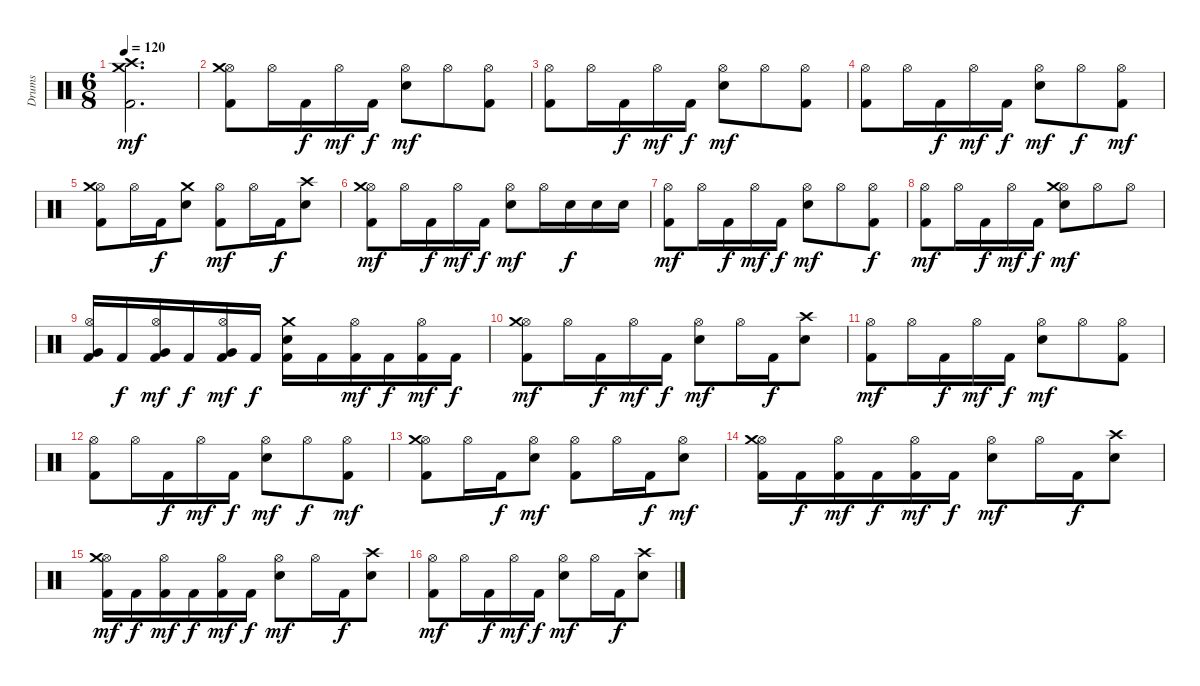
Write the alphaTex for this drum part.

\track ("Drums" "Drums") {instrument percussion}
\staff {score}
\articulation defaults
\ts (6 8)
\tempo 120
\clef neutral
\ks c
("Kick (hit) 2" "Crash high (hit)" "Crash medium (hit)").2{d dy mf} |
("Kick (hit) 2" "Hi-Hat (open)" "Crash medium (hit)").8 "Hi-Hat (open)".16 "Kick (hit) 2".16{dy f} "Hi-Hat (open)".16{dy mf} "Kick (hit) 2".16{dy f} ("Snare (hit) 2" "Hi-Hat (open)").8{dy mf} "Hi-Hat (open)".8 ("Kick (hit) 2" "Hi-Hat (open)").8 |
("Kick (hit) 2" "Hi-Hat (open)").8 "Hi-Hat (open)".16 "Kick (hit) 2".16{dy f} "Hi-Hat (open)".16{dy mf} "Kick (hit) 2".16{dy f} ("Snare (hit) 2" "Hi-Hat (open)").8{dy mf} "Hi-Hat (open)".8 ("Kick (hit) 2" "Hi-Hat (open)").8 |
("Kick (hit) 2" "Hi-Hat (open)").8 "Hi-Hat (open)".16 "Kick (hit) 2".16{dy f} "Hi-Hat (open)".16{dy mf} "Kick (hit) 2".16{dy f} ("Snare (hit) 2" "Hi-Hat (open)").8{dy mf} "Hi-Hat (open)".8{dy f} ("Kick (hit) 2" "Hi-Hat (open)").8{dy mf} |
("Kick (hit) 2" "Hi-Hat (open)" "Crash medium (hit)").8 "Hi-Hat (open)".16 "Kick (hit) 2".16{dy f} ("Snare (hit) 2" "Crash medium (hit)").8 ("Kick (hit) 2" "Hi-Hat (open)").8{dy mf} "Hi-Hat (open)".16 "Kick (hit) 2".16{dy f} ("Snare (hit) 2" "Crash high (hit)").8 |
("Kick (hit) 2" "Hi-Hat (open)" "Crash medium (hit)").8{dy mf} "Hi-Hat (open)".16 "Kick (hit) 2".16{dy f} "Hi-Hat (open)".16{dy mf} "Kick (hit) 2".16{dy f} ("Snare (hit) 2" "Hi-Hat (open)").8{dy mf} "Hi-Hat (open)".16 "Snare (hit) 2".16{dy f} "Snare (hit) 2".16 "Snare (hit) 2".16 |
("Kick (hit) 2" "Hi-Hat (open)").8{dy mf} "Hi-Hat (open)".16 "Kick (hit) 2".16{dy f} "Hi-Hat (open)".16{dy mf} "Kick (hit) 2".16{dy f} ("Snare (hit) 2" "Hi-Hat (open)").8{dy mf} "Hi-Hat (open)".8 ("Kick (hit) 2" "Hi-Hat (open)").8{dy f} |
("Kick (hit) 2" "Hi-Hat (open)").8{dy mf} "Hi-Hat (open)".16 "Kick (hit) 2".16{dy f} "Hi-Hat (open)".16{dy mf} "Kick (hit) 2".16{dy f} ("Snare (hit) 2" "Hi-Hat (open)" "Crash medium (hit)").8{dy mf} "Hi-Hat (open)".8 "Hi-Hat (open)".8 |
("Kick (hit) 2" "Very Low Tom (hit)" "Hi-Hat (open)").16 "Kick (hit) 2".16{dy f} ("Kick (hit) 2" "Very Low Tom (hit)" "Hi-Hat (open)").16{dy mf} "Kick (hit) 2".16{dy f} ("Kick (hit) 2" "Very Low Tom (hit)" "Hi-Hat (open)").16{dy mf} "Kick (hit) 2".16{dy f} ("Kick (hit) 2" "Snare (hit) 2" "Crash medium (hit)").16 "Kick (hit) 2".16 ("Kick (hit) 2" "Hi-Hat (open)").16{dy mf} "Kick (hit) 2".16{dy f} ("Kick (hit) 2" "Hi-Hat (open)").16{dy mf} "Kick (hit) 2".16{dy f} |
("Kick (hit) 2" "Hi-Hat (open)" "Crash medium (hit)").8{dy mf} "Hi-Hat (open)".16 "Kick (hit) 2".16{dy f} "Hi-Hat (open)".16{dy mf} "Kick (hit) 2".16{dy f} ("Snare (hit) 2" "Hi-Hat (open)").8{dy mf} "Hi-Hat (open)".16 "Kick (hit) 2".16{dy f} ("Snare (hit) 2" "Crash high (hit)").8 |
("Kick (hit) 2" "Hi-Hat (open)").8{dy mf} "Hi-Hat (open)".16 "Kick (hit) 2".16{dy f} "Hi-Hat (open)".16{dy mf} "Kick (hit) 2".16{dy f} ("Snare (hit) 2" "Hi-Hat (open)").8{dy mf} "Hi-Hat (open)".8 ("Kick (hit) 2" "Hi-Hat (open)").8 |
("Kick (hit) 2" "Hi-Hat (open)").8 "Hi-Hat (open)".16 "Kick (hit) 2".16{dy f} "Hi-Hat (open)".16{dy mf} "Kick (hit) 2".16{dy f} ("Snare (hit) 2" "Hi-Hat (open)").8{dy mf} "Hi-Hat (open)".8{dy f} ("Kick (hit) 2" "Hi-Hat (open)").8{dy mf} |
("Kick (hit) 2" "Hi-Hat (open)" "Crash medium (hit)").8 "Hi-Hat (open)".16 "Kick (hit) 2".16{dy f} ("Snare (hit) 2" "Hi-Hat (open)").8{dy mf} ("Kick (hit) 2" "Hi-Hat (open)").8 "Hi-Hat (open)".16 "Kick (hit) 2".16{dy f} ("Snare (hit) 2" "Hi-Hat (open)").8{dy mf} |
("Kick (hit) 2" "Hi-Hat (open)" "Crash medium (hit)").16 "Kick (hit) 2".16{dy f} ("Kick (hit) 2" "Hi-Hat (open)").16{dy mf} "Kick (hit) 2".16{dy f} ("Kick (hit) 2" "Hi-Hat (open)").16{dy mf} "Kick (hit) 2".16{dy f} ("Snare (hit) 2" "Hi-Hat (open)").8{dy mf} "Hi-Hat (open)".16 "Kick (hit) 2".16{dy f} ("Snare (hit) 2" "Crash high (hit)").8 |
("Kick (hit) 2" "Hi-Hat (open)" "Crash medium (hit)").16{dy mf} "Kick (hit) 2".16{dy f} ("Kick (hit) 2" "Hi-Hat (open)").16{dy mf} "Kick (hit) 2".16{dy f} ("Kick (hit) 2" "Hi-Hat (open)").16{dy mf} "Kick (hit) 2".16{dy f} ("Snare (hit) 2" "Hi-Hat (open)").8{dy mf} "Hi-Hat (open)".16 "Kick (hit) 2".16{dy f} ("Snare (hit) 2" "Crash high (hit)").8 |
("Kick (hit) 2" "Hi-Hat (open)").8{dy mf} "Hi-Hat (open)".16 "Kick (hit) 2".16{dy f} "Hi-Hat (open)".16{dy mf} "Kick (hit) 2".16{dy f} ("Snare (hit) 2" "Hi-Hat (open)").8{dy mf} "Hi-Hat (open)".16 "Kick (hit) 2".16{dy f} ("Snare (hit) 2" "Crash high (hit)").8
